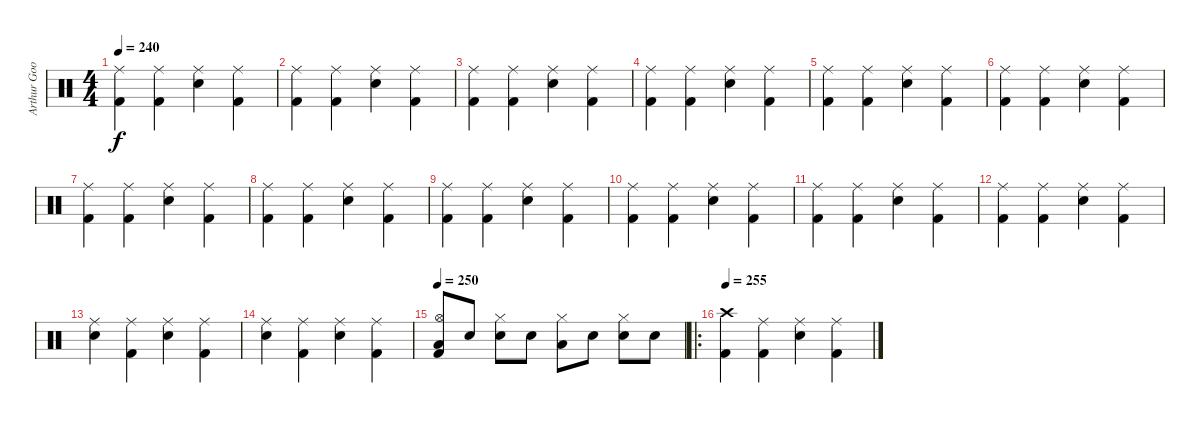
\track ("Arthur Googy" "Arthur Goo") {instrument percussion}
\staff {score}
\articulation defaults
\ts (4 4)
\tempo 240
\clef neutral
\ks c
("Ride (middle)" "Kick (hit) 2").4{dy f} ("Ride (middle)" "Kick (hit) 2").4 ("Ride (middle)" "Electric Snare (hit)").4 ("Ride (middle)" "Kick (hit) 2").4 |
("Ride (middle)" "Kick (hit) 2").4 ("Ride (middle)" "Kick (hit) 2").4 ("Ride (middle)" "Electric Snare (hit)").4 ("Ride (middle)" "Kick (hit) 2").4 |
("Ride (middle)" "Kick (hit) 2").4 ("Ride (middle)" "Kick (hit) 2").4 ("Ride (middle)" "Electric Snare (hit)").4 ("Ride (middle)" "Kick (hit) 2").4 |
("Ride (middle)" "Kick (hit) 2").4 ("Ride (middle)" "Kick (hit) 2").4 ("Ride (middle)" "Electric Snare (hit)").4 ("Ride (middle)" "Kick (hit) 2").4 |
("Ride (middle)" "Kick (hit) 2").4 ("Ride (middle)" "Kick (hit) 2").4 ("Ride (middle)" "Electric Snare (hit)").4 ("Ride (middle)" "Kick (hit) 2").4 |
("Ride (middle)" "Kick (hit) 2").4 ("Ride (middle)" "Kick (hit) 2").4 ("Ride (middle)" "Electric Snare (hit)").4 ("Ride (middle)" "Kick (hit) 2").4 |
("Ride (middle)" "Kick (hit) 2").4 ("Ride (middle)" "Kick (hit) 2").4 ("Ride (middle)" "Electric Snare (hit)").4 ("Ride (middle)" "Kick (hit) 2").4 |
("Ride (middle)" "Kick (hit) 2").4 ("Ride (middle)" "Kick (hit) 2").4 ("Ride (middle)" "Electric Snare (hit)").4 ("Ride (middle)" "Kick (hit) 2").4 |
("Ride (middle)" "Kick (hit) 2").4 ("Ride (middle)" "Kick (hit) 2").4 ("Ride (middle)" "Electric Snare (hit)").4 ("Ride (middle)" "Kick (hit) 2").4 |
("Ride (middle)" "Kick (hit) 2").4 ("Ride (middle)" "Kick (hit) 2").4 ("Ride (middle)" "Electric Snare (hit)").4 ("Ride (middle)" "Kick (hit) 2").4 |
("Ride (middle)" "Kick (hit) 2").4 ("Ride (middle)" "Kick (hit) 2").4 ("Ride (middle)" "Electric Snare (hit)").4 ("Ride (middle)" "Kick (hit) 2").4 |
("Ride (middle)" "Kick (hit) 2").4 ("Ride (middle)" "Kick (hit) 2").4 ("Ride (middle)" "Electric Snare (hit)").4 ("Ride (middle)" "Kick (hit) 2").4 |
("Ride (middle)" "Electric Snare (hit)").4 ("Ride (middle)" "Kick (hit) 2").4 ("Ride (middle)" "Electric Snare (hit)").4 ("Ride (middle)" "Kick (hit) 2").4 |
("Ride (middle)" "Electric Snare (hit)").4 ("Ride (middle)" "Kick (hit) 2").4 ("Ride (middle)" "Electric Snare (hit)").4 ("Ride (middle)" "Kick (hit) 2").4 |
\tempo 250
("Hi-Hat (open)" "Low Tom (hit)" "Kick (hit) 2").8 "Electric Snare (hit)".8 ("Hi-Hat (closed)" "Electric Snare (hit)").8 "Electric Snare (hit)".8 ("Hi-Hat (closed)" "Low Tom (hit)").8 "Electric Snare (hit)".8 ("Hi-Hat (closed)" "Electric Snare (hit)").8 "Electric Snare (hit)".8 |
\ro
\tempo 255
("Crash high (hit)" "Kick (hit) 2").4 ("Ride (middle)" "Kick (hit) 2").4 ("Ride (middle)" "Electric Snare (hit)").4 ("Ride (middle)" "Kick (hit) 2").4
